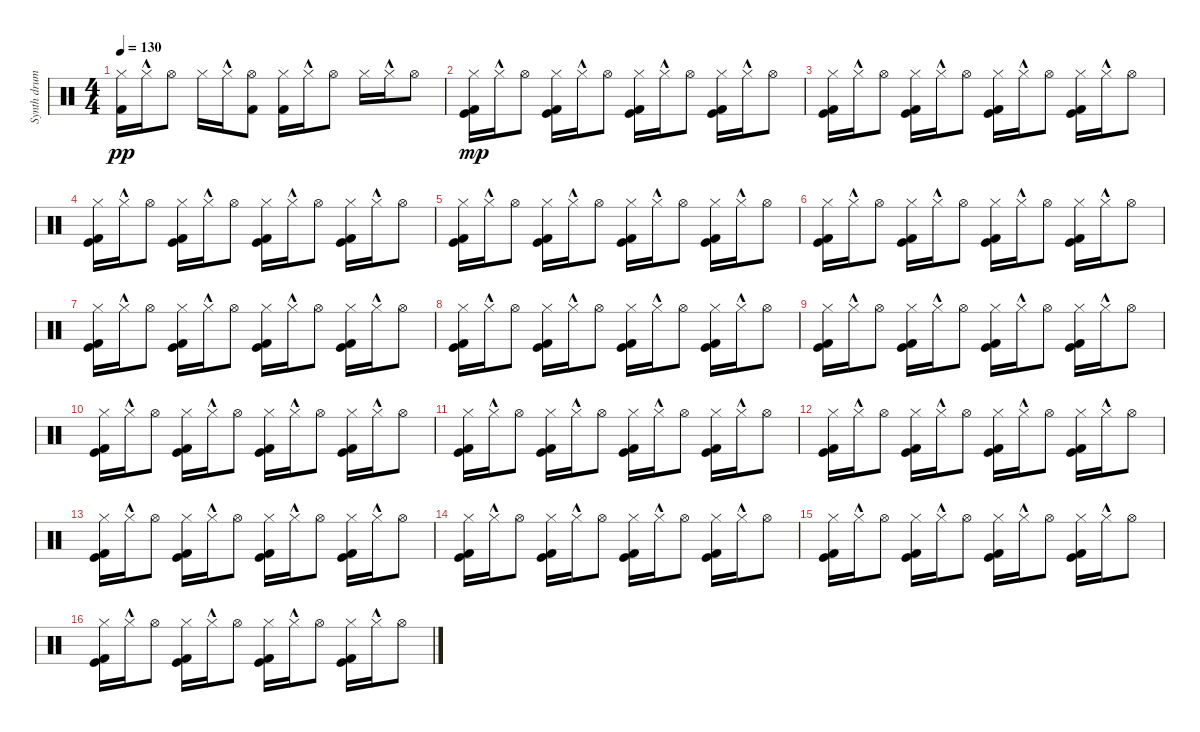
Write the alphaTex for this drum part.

\track ("Synth drums" "Synth drum") {instrument percussion}
\staff {score}
\articulation defaults
\ts (4 4)
\tempo 130
\clef neutral
\ks c
("Hi-Hat (closed)" "Kick (hit) 2").16{dy pp} "Hi-Hat (closed)"{hac}.16 "Hi-Hat (open)".8 "Hi-Hat (closed)".16 "Hi-Hat (closed)"{hac}.16 ("Hi-Hat (open)" "Kick (hit) 2").8 ("Hi-Hat (closed)" "Kick (hit) 2").16 "Hi-Hat (closed)"{hac}.16 "Hi-Hat (open)".8 "Hi-Hat (closed)".16 "Hi-Hat (closed)"{hac}.16 "Hi-Hat (open)".8 |
("Kick (hit)" "Kick (hit) 2" "Hi-Hat (closed)").16{dy mp} "Hi-Hat (closed)"{hac}.16 "Hi-Hat (open)".8 ("Kick (hit)" "Kick (hit) 2" "Hi-Hat (closed)").16 "Hi-Hat (closed)"{hac}.16 "Hi-Hat (open)".8 ("Kick (hit)" "Kick (hit) 2" "Hi-Hat (closed)").16 "Hi-Hat (closed)"{hac}.16 "Hi-Hat (open)".8 ("Kick (hit)" "Kick (hit) 2" "Hi-Hat (closed)").16 "Hi-Hat (closed)"{hac}.16 "Hi-Hat (open)".8 |
("Kick (hit)" "Kick (hit) 2" "Hi-Hat (closed)").16 "Hi-Hat (closed)"{hac}.16 "Hi-Hat (open)".8 ("Kick (hit)" "Kick (hit) 2" "Hi-Hat (closed)").16 "Hi-Hat (closed)"{hac}.16 "Hi-Hat (open)".8 ("Kick (hit)" "Kick (hit) 2" "Hi-Hat (closed)").16 "Hi-Hat (closed)"{hac}.16 "Hi-Hat (open)".8 ("Kick (hit)" "Kick (hit) 2" "Hi-Hat (closed)").16 "Hi-Hat (closed)"{hac}.16 "Hi-Hat (open)".8 |
("Kick (hit)" "Kick (hit) 2" "Hi-Hat (closed)").16 "Hi-Hat (closed)"{hac}.16 "Hi-Hat (open)".8 ("Kick (hit)" "Kick (hit) 2" "Hi-Hat (closed)").16 "Hi-Hat (closed)"{hac}.16 "Hi-Hat (open)".8 ("Kick (hit)" "Kick (hit) 2" "Hi-Hat (closed)").16 "Hi-Hat (closed)"{hac}.16 "Hi-Hat (open)".8 ("Kick (hit)" "Kick (hit) 2" "Hi-Hat (closed)").16 "Hi-Hat (closed)"{hac}.16 "Hi-Hat (open)".8 |
("Kick (hit)" "Kick (hit) 2" "Hi-Hat (closed)").16 "Hi-Hat (closed)"{hac}.16 "Hi-Hat (open)".8 ("Kick (hit)" "Kick (hit) 2" "Hi-Hat (closed)").16 "Hi-Hat (closed)"{hac}.16 "Hi-Hat (open)".8 ("Kick (hit)" "Kick (hit) 2" "Hi-Hat (closed)").16 "Hi-Hat (closed)"{hac}.16 "Hi-Hat (open)".8 ("Kick (hit)" "Kick (hit) 2" "Hi-Hat (closed)").16 "Hi-Hat (closed)"{hac}.16 "Hi-Hat (open)".8 |
("Kick (hit)" "Kick (hit) 2" "Hi-Hat (closed)").16 "Hi-Hat (closed)"{hac}.16 "Hi-Hat (open)".8 ("Kick (hit)" "Kick (hit) 2" "Hi-Hat (closed)").16 "Hi-Hat (closed)"{hac}.16 "Hi-Hat (open)".8 ("Kick (hit)" "Kick (hit) 2" "Hi-Hat (closed)").16 "Hi-Hat (closed)"{hac}.16 "Hi-Hat (open)".8 ("Kick (hit)" "Kick (hit) 2" "Hi-Hat (closed)").16 "Hi-Hat (closed)"{hac}.16 "Hi-Hat (open)".8 |
("Kick (hit)" "Kick (hit) 2" "Hi-Hat (closed)").16 "Hi-Hat (closed)"{hac}.16 "Hi-Hat (open)".8 ("Kick (hit)" "Kick (hit) 2" "Hi-Hat (closed)").16 "Hi-Hat (closed)"{hac}.16 "Hi-Hat (open)".8 ("Kick (hit)" "Kick (hit) 2" "Hi-Hat (closed)").16 "Hi-Hat (closed)"{hac}.16 "Hi-Hat (open)".8 ("Kick (hit)" "Kick (hit) 2" "Hi-Hat (closed)").16 "Hi-Hat (closed)"{hac}.16 "Hi-Hat (open)".8 |
("Kick (hit)" "Kick (hit) 2" "Hi-Hat (closed)").16 "Hi-Hat (closed)"{hac}.16 "Hi-Hat (open)".8 ("Kick (hit)" "Kick (hit) 2" "Hi-Hat (closed)").16 "Hi-Hat (closed)"{hac}.16 "Hi-Hat (open)".8 ("Kick (hit)" "Kick (hit) 2" "Hi-Hat (closed)").16 "Hi-Hat (closed)"{hac}.16 "Hi-Hat (open)".8 ("Kick (hit)" "Kick (hit) 2" "Hi-Hat (closed)").16 "Hi-Hat (closed)"{hac}.16 "Hi-Hat (open)".8 |
("Kick (hit)" "Kick (hit) 2" "Hi-Hat (closed)").16 "Hi-Hat (closed)"{hac}.16 "Hi-Hat (open)".8 ("Kick (hit)" "Kick (hit) 2" "Hi-Hat (closed)").16 "Hi-Hat (closed)"{hac}.16 "Hi-Hat (open)".8 ("Kick (hit)" "Kick (hit) 2" "Hi-Hat (closed)").16 "Hi-Hat (closed)"{hac}.16 "Hi-Hat (open)".8 ("Kick (hit)" "Kick (hit) 2" "Hi-Hat (closed)").16 "Hi-Hat (closed)"{hac}.16 "Hi-Hat (open)".8 |
("Kick (hit)" "Kick (hit) 2" "Hi-Hat (closed)").16 "Hi-Hat (closed)"{hac}.16 "Hi-Hat (open)".8 ("Kick (hit)" "Kick (hit) 2" "Hi-Hat (closed)").16 "Hi-Hat (closed)"{hac}.16 "Hi-Hat (open)".8 ("Kick (hit)" "Kick (hit) 2" "Hi-Hat (closed)").16 "Hi-Hat (closed)"{hac}.16 "Hi-Hat (open)".8 ("Kick (hit)" "Kick (hit) 2" "Hi-Hat (closed)").16 "Hi-Hat (closed)"{hac}.16 "Hi-Hat (open)".8 |
("Kick (hit)" "Kick (hit) 2" "Hi-Hat (closed)").16 "Hi-Hat (closed)"{hac}.16 "Hi-Hat (open)".8 ("Kick (hit)" "Kick (hit) 2" "Hi-Hat (closed)").16 "Hi-Hat (closed)"{hac}.16 "Hi-Hat (open)".8 ("Kick (hit)" "Kick (hit) 2" "Hi-Hat (closed)").16 "Hi-Hat (closed)"{hac}.16 "Hi-Hat (open)".8 ("Kick (hit)" "Kick (hit) 2" "Hi-Hat (closed)").16 "Hi-Hat (closed)"{hac}.16 "Hi-Hat (open)".8 |
("Kick (hit)" "Kick (hit) 2" "Hi-Hat (closed)").16 "Hi-Hat (closed)"{hac}.16 "Hi-Hat (open)".8 ("Kick (hit)" "Kick (hit) 2" "Hi-Hat (closed)").16 "Hi-Hat (closed)"{hac}.16 "Hi-Hat (open)".8 ("Kick (hit)" "Kick (hit) 2" "Hi-Hat (closed)").16 "Hi-Hat (closed)"{hac}.16 "Hi-Hat (open)".8 ("Kick (hit)" "Kick (hit) 2" "Hi-Hat (closed)").16 "Hi-Hat (closed)"{hac}.16 "Hi-Hat (open)".8 |
("Kick (hit)" "Kick (hit) 2" "Hi-Hat (closed)").16 "Hi-Hat (closed)"{hac}.16 "Hi-Hat (open)".8 ("Kick (hit)" "Kick (hit) 2" "Hi-Hat (closed)").16 "Hi-Hat (closed)"{hac}.16 "Hi-Hat (open)".8 ("Kick (hit)" "Kick (hit) 2" "Hi-Hat (closed)").16 "Hi-Hat (closed)"{hac}.16 "Hi-Hat (open)".8 ("Kick (hit)" "Kick (hit) 2" "Hi-Hat (closed)").16 "Hi-Hat (closed)"{hac}.16 "Hi-Hat (open)".8 |
("Kick (hit)" "Kick (hit) 2" "Hi-Hat (closed)").16 "Hi-Hat (closed)"{hac}.16 "Hi-Hat (open)".8 ("Kick (hit)" "Kick (hit) 2" "Hi-Hat (closed)").16 "Hi-Hat (closed)"{hac}.16 "Hi-Hat (open)".8 ("Kick (hit)" "Kick (hit) 2" "Hi-Hat (closed)").16 "Hi-Hat (closed)"{hac}.16 "Hi-Hat (open)".8 ("Kick (hit)" "Kick (hit) 2" "Hi-Hat (closed)").16 "Hi-Hat (closed)"{hac}.16 "Hi-Hat (open)".8 |
("Kick (hit)" "Kick (hit) 2" "Hi-Hat (closed)").16 "Hi-Hat (closed)"{hac}.16 "Hi-Hat (open)".8 ("Kick (hit)" "Kick (hit) 2" "Hi-Hat (closed)").16 "Hi-Hat (closed)"{hac}.16 "Hi-Hat (open)".8 ("Kick (hit)" "Kick (hit) 2" "Hi-Hat (closed)").16 "Hi-Hat (closed)"{hac}.16 "Hi-Hat (open)".8 ("Kick (hit)" "Kick (hit) 2" "Hi-Hat (closed)").16 "Hi-Hat (closed)"{hac}.16 "Hi-Hat (open)".8 |
("Kick (hit)" "Kick (hit) 2" "Hi-Hat (closed)").16 "Hi-Hat (closed)"{hac}.16 "Hi-Hat (open)".8 ("Kick (hit)" "Kick (hit) 2" "Hi-Hat (closed)").16 "Hi-Hat (closed)"{hac}.16 "Hi-Hat (open)".8 ("Kick (hit)" "Kick (hit) 2" "Hi-Hat (closed)").16 "Hi-Hat (closed)"{hac}.16 "Hi-Hat (open)".8 ("Kick (hit)" "Kick (hit) 2" "Hi-Hat (closed)").16 "Hi-Hat (closed)"{hac}.16 "Hi-Hat (open)".8
